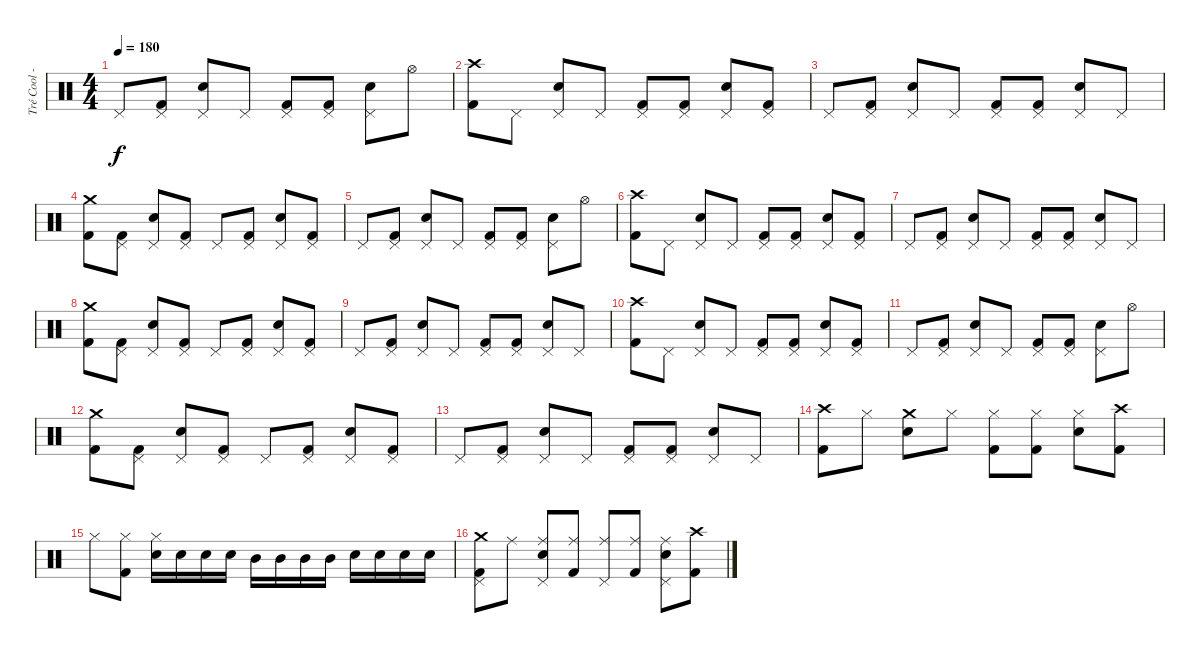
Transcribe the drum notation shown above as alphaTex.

\track ("Tré Cool - Drums" "Tré Cool -") {instrument percussion}
\staff {score}
\articulation defaults
\ts (4 4)
\tempo 180
\clef neutral
\ks c "Pedal Hi-Hat (hit)".8{dy f}
("Pedal Hi-Hat (hit)" "Kick (hit) 2").8 ("Pedal Hi-Hat (hit)" "Electric Snare (hit)").8 "Pedal Hi-Hat (hit)".8 ("Pedal Hi-Hat (hit)" "Kick (hit) 2").8 ("Pedal Hi-Hat (hit)" "Kick (hit) 2").8 ("Pedal Hi-Hat (hit)" "Electric Snare (hit)").8 "Hi-Hat (open)".8 |
("Crash high (hit)" "Kick (hit) 2").8 "Pedal Hi-Hat (hit)".8 ("Pedal Hi-Hat (hit)" "Electric Snare (hit)").8 "Pedal Hi-Hat (hit)".8 ("Pedal Hi-Hat (hit)" "Kick (hit) 2").8 ("Pedal Hi-Hat (hit)" "Kick (hit) 2").8 ("Pedal Hi-Hat (hit)" "Electric Snare (hit)").8 ("Pedal Hi-Hat (hit)" "Kick (hit) 2").8 |
"Pedal Hi-Hat (hit)".8 ("Pedal Hi-Hat (hit)" "Kick (hit) 2").8 ("Pedal Hi-Hat (hit)" "Electric Snare (hit)").8 "Pedal Hi-Hat (hit)".8 ("Pedal Hi-Hat (hit)" "Kick (hit) 2").8 ("Pedal Hi-Hat (hit)" "Kick (hit) 2").8 ("Pedal Hi-Hat (hit)" "Electric Snare (hit)").8 "Pedal Hi-Hat (hit)".8 |
("Crash medium (hit)" "Kick (hit) 2").8 ("Pedal Hi-Hat (hit)" "Kick (hit) 2").8 ("Pedal Hi-Hat (hit)" "Electric Snare (hit)").8 ("Pedal Hi-Hat (hit)" "Kick (hit) 2").8 "Pedal Hi-Hat (hit)".8 ("Pedal Hi-Hat (hit)" "Kick (hit) 2").8 ("Pedal Hi-Hat (hit)" "Electric Snare (hit)").8 ("Pedal Hi-Hat (hit)" "Kick (hit) 2").8 |
"Pedal Hi-Hat (hit)".8 ("Pedal Hi-Hat (hit)" "Kick (hit) 2").8 ("Pedal Hi-Hat (hit)" "Electric Snare (hit)").8 "Pedal Hi-Hat (hit)".8 ("Pedal Hi-Hat (hit)" "Kick (hit) 2").8 ("Pedal Hi-Hat (hit)" "Kick (hit) 2").8 ("Pedal Hi-Hat (hit)" "Electric Snare (hit)").8 "Hi-Hat (open)".8 |
("Crash high (hit)" "Kick (hit) 2").8 "Pedal Hi-Hat (hit)".8 ("Pedal Hi-Hat (hit)" "Electric Snare (hit)").8 "Pedal Hi-Hat (hit)".8 ("Pedal Hi-Hat (hit)" "Kick (hit) 2").8 ("Pedal Hi-Hat (hit)" "Kick (hit) 2").8 ("Pedal Hi-Hat (hit)" "Electric Snare (hit)").8 ("Pedal Hi-Hat (hit)" "Kick (hit) 2").8 |
"Pedal Hi-Hat (hit)".8 ("Pedal Hi-Hat (hit)" "Kick (hit) 2").8 ("Pedal Hi-Hat (hit)" "Electric Snare (hit)").8 "Pedal Hi-Hat (hit)".8 ("Pedal Hi-Hat (hit)" "Kick (hit) 2").8 ("Pedal Hi-Hat (hit)" "Kick (hit) 2").8 ("Pedal Hi-Hat (hit)" "Electric Snare (hit)").8 "Pedal Hi-Hat (hit)".8 |
("Crash medium (hit)" "Kick (hit) 2").8 ("Pedal Hi-Hat (hit)" "Kick (hit) 2").8 ("Pedal Hi-Hat (hit)" "Electric Snare (hit)").8 ("Pedal Hi-Hat (hit)" "Kick (hit) 2").8 "Pedal Hi-Hat (hit)".8 ("Pedal Hi-Hat (hit)" "Kick (hit) 2").8 ("Pedal Hi-Hat (hit)" "Electric Snare (hit)").8 ("Pedal Hi-Hat (hit)" "Kick (hit) 2").8 |
"Pedal Hi-Hat (hit)".8 ("Pedal Hi-Hat (hit)" "Kick (hit) 2").8 ("Pedal Hi-Hat (hit)" "Electric Snare (hit)").8 "Pedal Hi-Hat (hit)".8 ("Pedal Hi-Hat (hit)" "Kick (hit) 2").8 ("Pedal Hi-Hat (hit)" "Kick (hit) 2").8 ("Pedal Hi-Hat (hit)" "Electric Snare (hit)").8 "Pedal Hi-Hat (hit)".8 |
("Crash high (hit)" "Kick (hit) 2").8 "Pedal Hi-Hat (hit)".8 ("Pedal Hi-Hat (hit)" "Electric Snare (hit)").8 "Pedal Hi-Hat (hit)".8 ("Pedal Hi-Hat (hit)" "Kick (hit) 2").8 ("Pedal Hi-Hat (hit)" "Kick (hit) 2").8 ("Pedal Hi-Hat (hit)" "Electric Snare (hit)").8 ("Pedal Hi-Hat (hit)" "Kick (hit) 2").8 |
"Pedal Hi-Hat (hit)".8 ("Pedal Hi-Hat (hit)" "Kick (hit) 2").8 ("Pedal Hi-Hat (hit)" "Electric Snare (hit)").8 "Pedal Hi-Hat (hit)".8 ("Pedal Hi-Hat (hit)" "Kick (hit) 2").8 ("Pedal Hi-Hat (hit)" "Kick (hit) 2").8 ("Pedal Hi-Hat (hit)" "Electric Snare (hit)").8 "Hi-Hat (open)".8 |
("Crash medium (hit)" "Kick (hit) 2").8 ("Pedal Hi-Hat (hit)" "Kick (hit) 2").8 ("Pedal Hi-Hat (hit)" "Electric Snare (hit)").8 ("Pedal Hi-Hat (hit)" "Kick (hit) 2").8 "Pedal Hi-Hat (hit)".8 ("Pedal Hi-Hat (hit)" "Kick (hit) 2").8 ("Pedal Hi-Hat (hit)" "Electric Snare (hit)").8 ("Pedal Hi-Hat (hit)" "Kick (hit) 2").8 |
"Pedal Hi-Hat (hit)".8 ("Pedal Hi-Hat (hit)" "Kick (hit) 2").8 ("Pedal Hi-Hat (hit)" "Electric Snare (hit)").8 "Pedal Hi-Hat (hit)".8 ("Pedal Hi-Hat (hit)" "Kick (hit) 2").8 ("Pedal Hi-Hat (hit)" "Kick (hit) 2").8 ("Pedal Hi-Hat (hit)" "Electric Snare (hit)").8 "Pedal Hi-Hat (hit)".8 |
("Crash high (hit)" "Kick (hit) 2").8 "Hi-Hat (closed)".8 ("Crash medium (hit)" "Electric Snare (hit)").8 "Hi-Hat (closed)".8 ("Hi-Hat (closed)" "Kick (hit) 2").8 ("Hi-Hat (closed)" "Kick (hit) 2").8 ("Hi-Hat (closed)" "Electric Snare (hit)").8 ("Crash high (hit)" "Kick (hit) 2").8 |
"Hi-Hat (closed)".8 ("Hi-Hat (closed)" "Kick (hit) 2").8 ("Hi-Hat (closed)" "Electric Snare (hit)").16 "Electric Snare (hit)".16 "Electric Snare (hit)".16 "Electric Snare (hit)".16 "Mid Tom (hit)".16 "Mid Tom (hit)".16 "Mid Tom (hit)".16 "Mid Tom (hit)".16 "Electric Snare (hit)".16 "Electric Snare (hit)".16 "Electric Snare (hit)".16 "Electric Snare (hit)".16 |
("Crash medium (hit)" "Pedal Hi-Hat (hit)" "Kick (hit) 2").8 "Ride (middle)".8 ("Ride (middle)" "Pedal Hi-Hat (hit)" "Electric Snare (hit)").8 ("Ride (middle)" "Kick (hit) 2").8 ("Ride (middle)" "Pedal Hi-Hat (hit)").8 ("Ride (middle)" "Kick (hit) 2").8 ("Ride (middle)" "Pedal Hi-Hat (hit)" "Electric Snare (hit)").8 ("Crash high (hit)" "Kick (hit) 2").8
